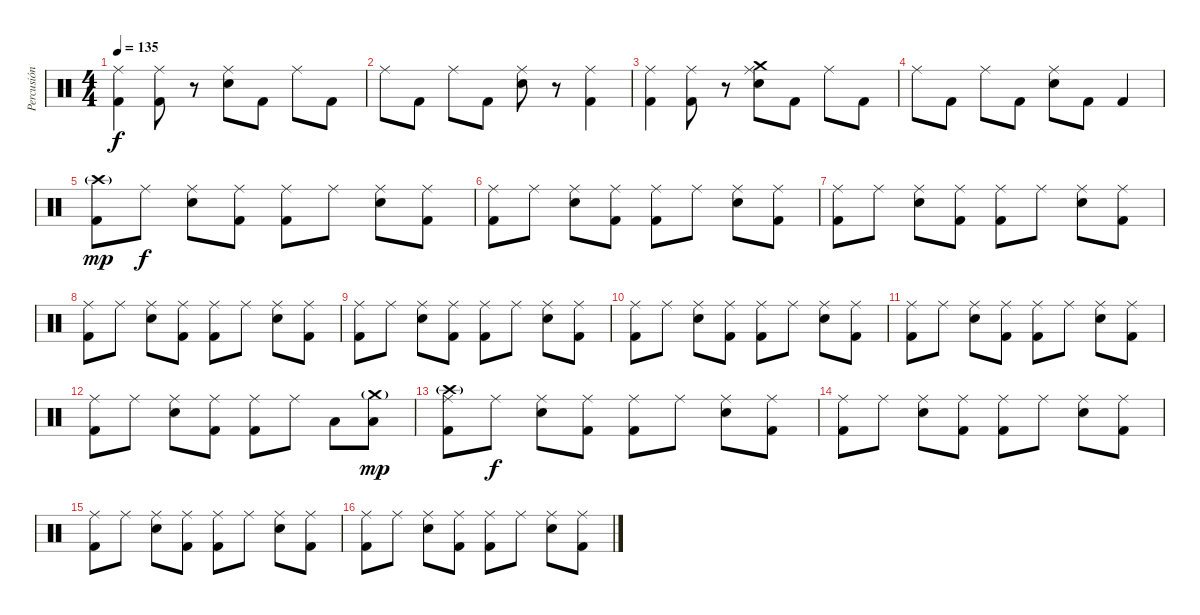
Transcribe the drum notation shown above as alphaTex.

\track ("Percusión" "Percusión") {instrument percussion}
\staff {score}
\articulation defaults
\ts (4 4)
\tempo 135
\clef neutral
\ks c
("Kick (hit) 2" "Ride (middle)").4{dy f} ("Kick (hit) 2" "Ride (middle)").8 r.8 ("Snare (hit) 2" "Ride (middle)").8 "Kick (hit) 2".8 "Ride (middle)".8 "Kick (hit) 2".8 |
"Ride (middle)".8 "Kick (hit) 2".8 "Ride (middle)".8 "Kick (hit) 2".8 ("Snare (hit) 2" "Ride (middle)").8 r.8 ("Kick (hit) 2" "Ride (middle)").4 |
("Kick (hit) 2" "Ride (middle)").4 ("Kick (hit) 2" "Ride (middle)").8 r.8 ("Snare (hit) 2" "Ride (middle)" "Crash medium (hit)").8 "Kick (hit) 2".8 "Ride (middle)".8 "Kick (hit) 2".8 |
"Ride (middle)".8 "Kick (hit) 2".8 "Ride (middle)".8 "Kick (hit) 2".8 ("Snare (hit) 2" "Ride (middle)").8 "Kick (hit) 2".8 "Kick (hit) 2".4 |
("Kick (hit) 2" "Crash high (hit)"{g}).8{dy mp} "Ride (middle)".8{dy f} ("Snare (hit) 2" "Ride (middle)").8 ("Kick (hit) 2" "Ride (middle)").8 ("Kick (hit) 2" "Ride (middle)").8 "Ride (middle)".8 ("Snare (hit) 2" "Ride (middle)").8 ("Kick (hit) 2" "Ride (middle)").8 |
("Kick (hit) 2" "Ride (middle)").8 "Ride (middle)".8 ("Snare (hit) 2" "Ride (middle)").8 ("Kick (hit) 2" "Ride (middle)").8 ("Kick (hit) 2" "Ride (middle)").8 "Ride (middle)".8 ("Snare (hit) 2" "Ride (middle)").8 ("Kick (hit) 2" "Ride (middle)").8 |
("Kick (hit) 2" "Ride (middle)").8 "Ride (middle)".8 ("Snare (hit) 2" "Ride (middle)").8 ("Kick (hit) 2" "Ride (middle)").8 ("Kick (hit) 2" "Ride (middle)").8 "Ride (middle)".8 ("Snare (hit) 2" "Ride (middle)").8 ("Kick (hit) 2" "Ride (middle)").8 |
("Kick (hit) 2" "Ride (middle)").8 "Ride (middle)".8 ("Snare (hit) 2" "Ride (middle)").8 ("Kick (hit) 2" "Ride (middle)").8 ("Kick (hit) 2" "Ride (middle)").8 "Ride (middle)".8 ("Snare (hit) 2" "Ride (middle)").8 ("Kick (hit) 2" "Ride (middle)").8 |
("Kick (hit) 2" "Ride (middle)").8 "Ride (middle)".8 ("Snare (hit) 2" "Ride (middle)").8 ("Kick (hit) 2" "Ride (middle)").8 ("Kick (hit) 2" "Ride (middle)").8 "Ride (middle)".8 ("Snare (hit) 2" "Ride (middle)").8 ("Kick (hit) 2" "Ride (middle)").8 |
("Kick (hit) 2" "Ride (middle)").8 "Ride (middle)".8 ("Snare (hit) 2" "Ride (middle)").8 ("Kick (hit) 2" "Ride (middle)").8 ("Kick (hit) 2" "Ride (middle)").8 "Ride (middle)".8 ("Snare (hit) 2" "Ride (middle)").8 ("Kick (hit) 2" "Ride (middle)").8 |
("Kick (hit) 2" "Ride (middle)").8 "Ride (middle)".8 ("Snare (hit) 2" "Ride (middle)").8 ("Kick (hit) 2" "Ride (middle)").8 ("Kick (hit) 2" "Ride (middle)").8 "Ride (middle)".8 ("Snare (hit) 2" "Ride (middle)").8 ("Kick (hit) 2" "Ride (middle)").8 |
("Kick (hit) 2" "Ride (middle)").8 "Ride (middle)".8 ("Snare (hit) 2" "Ride (middle)").8 ("Kick (hit) 2" "Ride (middle)").8 ("Kick (hit) 2" "Ride (middle)").8 "Ride (middle)".8 "Low Floor Tom (hit)".8 ("Low Floor Tom (hit)" "Crash medium (hit)"{g}).8{dy mp} |
("Kick (hit) 2" "Ride (middle)" "Crash high (hit)"{g}).8 "Ride (middle)".8{dy f} ("Snare (hit) 2" "Ride (middle)").8 ("Kick (hit) 2" "Ride (middle)").8 ("Kick (hit) 2" "Ride (middle)").8 "Ride (middle)".8 ("Snare (hit) 2" "Ride (middle)").8 ("Kick (hit) 2" "Ride (middle)").8 |
("Kick (hit) 2" "Ride (middle)").8 "Ride (middle)".8 ("Snare (hit) 2" "Ride (middle)").8 ("Kick (hit) 2" "Ride (middle)").8 ("Kick (hit) 2" "Ride (middle)").8 "Ride (middle)".8 ("Snare (hit) 2" "Ride (middle)").8 ("Kick (hit) 2" "Ride (middle)").8 |
("Kick (hit) 2" "Ride (middle)").8 "Ride (middle)".8 ("Snare (hit) 2" "Ride (middle)").8 ("Kick (hit) 2" "Ride (middle)").8 ("Kick (hit) 2" "Ride (middle)").8 "Ride (middle)".8 ("Snare (hit) 2" "Ride (middle)").8 ("Kick (hit) 2" "Ride (middle)").8 |
("Kick (hit) 2" "Ride (middle)").8 "Ride (middle)".8 ("Snare (hit) 2" "Ride (middle)").8 ("Kick (hit) 2" "Ride (middle)").8 ("Kick (hit) 2" "Ride (middle)").8 "Ride (middle)".8 ("Snare (hit) 2" "Ride (middle)").8 ("Kick (hit) 2" "Ride (middle)").8
